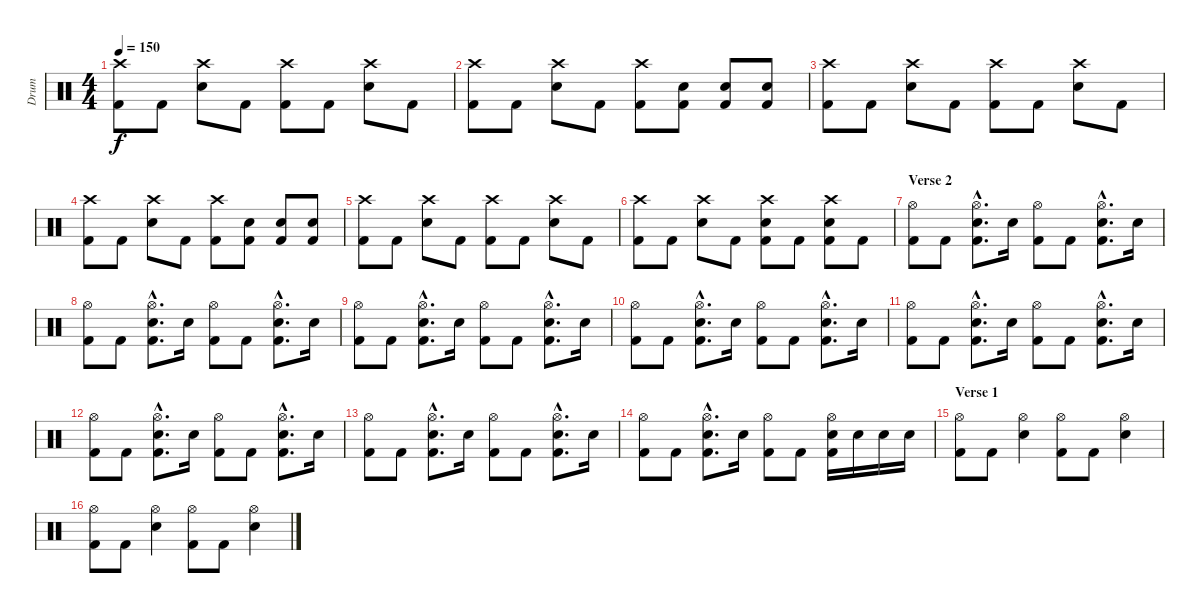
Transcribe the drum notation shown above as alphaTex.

\track ("Drum" "Drum") {instrument percussion}
\staff {score}
\articulation defaults
\ts (4 4)
\tempo 150
\clef neutral
\ks c
("Crash high (hit)" "Kick (hit) 2").8{dy f} "Kick (hit) 2".8 ("Crash high (hit)" "Snare (hit) 2").8 "Kick (hit) 2".8 ("Crash high (hit)" "Kick (hit) 2").8 "Kick (hit) 2".8 ("Crash high (hit)" "Snare (hit) 2").8 "Kick (hit) 2".8 |
("Crash high (hit)" "Kick (hit) 2").8 "Kick (hit) 2".8 ("Crash high (hit)" "Snare (hit) 2").8 "Kick (hit) 2".8 ("Crash high (hit)" "Kick (hit) 2").8 ("Snare (hit) 2" "Kick (hit) 2").8 ("Snare (hit) 2" "Kick (hit) 2").8 ("Snare (hit) 2" "Kick (hit) 2").8 |
("Crash high (hit)" "Kick (hit) 2").8 "Kick (hit) 2".8 ("Crash high (hit)" "Snare (hit) 2").8 "Kick (hit) 2".8 ("Crash high (hit)" "Kick (hit) 2").8 "Kick (hit) 2".8 ("Crash high (hit)" "Snare (hit) 2").8 "Kick (hit) 2".8 |
("Crash high (hit)" "Kick (hit) 2").8 "Kick (hit) 2".8 ("Crash high (hit)" "Snare (hit) 2").8 "Kick (hit) 2".8 ("Crash high (hit)" "Kick (hit) 2").8 ("Snare (hit) 2" "Kick (hit) 2").8 ("Snare (hit) 2" "Kick (hit) 2").8 ("Snare (hit) 2" "Kick (hit) 2").8 |
("Crash high (hit)" "Kick (hit) 2").8 "Kick (hit) 2".8 ("Crash high (hit)" "Snare (hit) 2").8 "Kick (hit) 2".8 ("Crash high (hit)" "Kick (hit) 2").8 "Kick (hit) 2".8 ("Crash high (hit)" "Snare (hit) 2").8 "Kick (hit) 2".8 |
("Crash high (hit)" "Kick (hit) 2").8 "Kick (hit) 2".8 ("Crash high (hit)" "Snare (hit) 2").8 "Kick (hit) 2".8 ("Crash high (hit)" "Snare (hit) 2" "Kick (hit) 2").8 "Kick (hit) 2".8 ("Crash high (hit)" "Snare (hit) 2" "Kick (hit) 2").8 "Kick (hit) 2".8 |
\section ("" "Verse 2")
("Hi-Hat (open)" "Kick (hit) 2").8 "Kick (hit) 2".8 ("Hi-Hat (open)"{hac} "Snare (hit) 2"{hac} "Kick (hit) 2"{hac}).8{d} "Snare (hit) 2".16 ("Hi-Hat (open)" "Kick (hit) 2").8 "Kick (hit) 2".8 ("Hi-Hat (open)"{hac} "Snare (hit) 2"{hac} "Kick (hit) 2"{hac}).8{d} "Snare (hit) 2".16 |
("Hi-Hat (open)" "Kick (hit) 2").8 "Kick (hit) 2".8 ("Hi-Hat (open)"{hac} "Snare (hit) 2"{hac} "Kick (hit) 2"{hac}).8{d} "Snare (hit) 2".16 ("Hi-Hat (open)" "Kick (hit) 2").8 "Kick (hit) 2".8 ("Hi-Hat (open)"{hac} "Snare (hit) 2"{hac} "Kick (hit) 2"{hac}).8{d} "Snare (hit) 2".16 |
("Hi-Hat (open)" "Kick (hit) 2").8 "Kick (hit) 2".8 ("Hi-Hat (open)"{hac} "Snare (hit) 2"{hac} "Kick (hit) 2"{hac}).8{d} "Snare (hit) 2".16 ("Hi-Hat (open)" "Kick (hit) 2").8 "Kick (hit) 2".8 ("Hi-Hat (open)"{hac} "Snare (hit) 2"{hac} "Kick (hit) 2"{hac}).8{d} "Snare (hit) 2".16 |
("Hi-Hat (open)" "Kick (hit) 2").8 "Kick (hit) 2".8 ("Hi-Hat (open)"{hac} "Snare (hit) 2"{hac} "Kick (hit) 2"{hac}).8{d} "Snare (hit) 2".16 ("Hi-Hat (open)" "Kick (hit) 2").8 "Kick (hit) 2".8 ("Hi-Hat (open)"{hac} "Snare (hit) 2"{hac} "Kick (hit) 2"{hac}).8{d} "Snare (hit) 2".16 |
("Hi-Hat (open)" "Kick (hit) 2").8 "Kick (hit) 2".8 ("Hi-Hat (open)"{hac} "Snare (hit) 2"{hac} "Kick (hit) 2"{hac}).8{d} "Snare (hit) 2".16 ("Hi-Hat (open)" "Kick (hit) 2").8 "Kick (hit) 2".8 ("Hi-Hat (open)"{hac} "Snare (hit) 2"{hac} "Kick (hit) 2"{hac}).8{d} "Snare (hit) 2".16 |
("Hi-Hat (open)" "Kick (hit) 2").8 "Kick (hit) 2".8 ("Hi-Hat (open)"{hac} "Snare (hit) 2"{hac} "Kick (hit) 2"{hac}).8{d} "Snare (hit) 2".16 ("Hi-Hat (open)" "Kick (hit) 2").8 "Kick (hit) 2".8 ("Hi-Hat (open)"{hac} "Snare (hit) 2"{hac} "Kick (hit) 2"{hac}).8{d} "Snare (hit) 2".16 |
("Hi-Hat (open)" "Kick (hit) 2").8 "Kick (hit) 2".8 ("Hi-Hat (open)"{hac} "Snare (hit) 2"{hac} "Kick (hit) 2"{hac}).8{d} "Snare (hit) 2".16 ("Hi-Hat (open)" "Kick (hit) 2").8 "Kick (hit) 2".8 ("Hi-Hat (open)"{hac} "Snare (hit) 2"{hac} "Kick (hit) 2"{hac}).8{d} "Snare (hit) 2".16 |
("Hi-Hat (open)" "Kick (hit) 2").8 "Kick (hit) 2".8 ("Hi-Hat (open)"{hac} "Snare (hit) 2"{hac} "Kick (hit) 2"{hac}).8{d} "Snare (hit) 2".16 ("Hi-Hat (open)" "Kick (hit) 2").8 "Kick (hit) 2".8 ("Hi-Hat (open)" "Snare (hit) 2" "Kick (hit) 2").16 "Snare (hit) 2".16 "Snare (hit) 2".16 "Snare (hit) 2".16 |
\section ("" "Verse 1")
("Hi-Hat (open)" "Kick (hit) 2").8 "Kick (hit) 2".8 ("Hi-Hat (open)" "Snare (hit) 2").4 ("Hi-Hat (open)" "Kick (hit) 2").8 "Kick (hit) 2".8 ("Hi-Hat (open)" "Snare (hit) 2").4 |
("Hi-Hat (open)" "Kick (hit) 2").8 "Kick (hit) 2".8 ("Hi-Hat (open)" "Snare (hit) 2").4 ("Hi-Hat (open)" "Kick (hit) 2").8 "Kick (hit) 2".8 ("Hi-Hat (open)" "Snare (hit) 2").4
